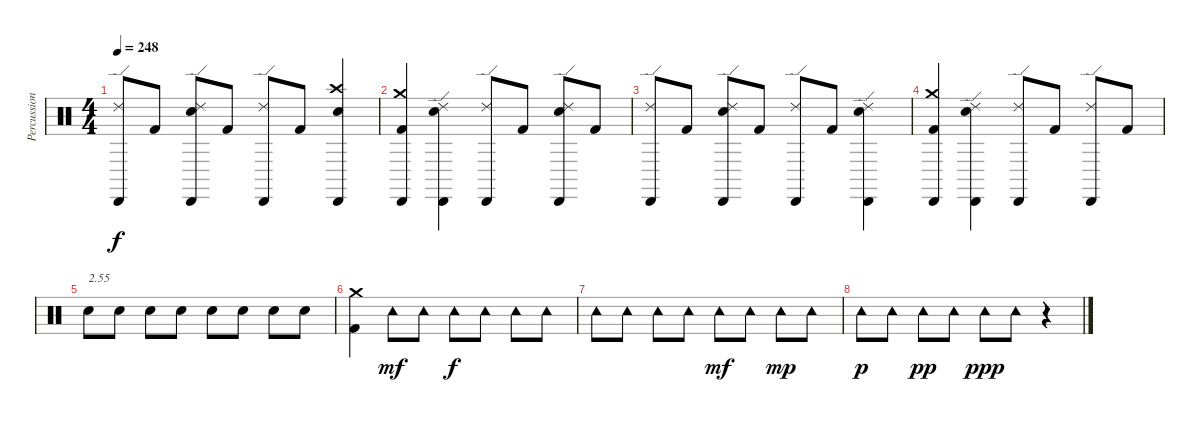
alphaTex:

\track ("Percussions" "Percussion") {instrument percussion}
\staff {score}
\articulation defaults
\ts (4 4)
\tempo 248
\clef neutral
\ks c
("Ride (edge) 2" "Cabasa (hit)").8{dy f} "Kick (hit) 2".8 ("Electric Snare (hit)" "Ride (edge) 2" "Cabasa (hit)").8 "Kick (hit) 2".8 ("Ride (edge) 2" "Cabasa (hit)").8 "Kick (hit) 2".8 ("Electric Snare (hit)" "Crash high (hit)" "Cabasa (hit)").4 |
("Kick (hit) 2" "Crash medium (hit)" "Cabasa (hit)").4 ("Electric Snare (hit)" "Ride (edge) 2" "Cabasa (hit)").4 ("Ride (edge) 2" "Cabasa (hit)").8 "Kick (hit) 2".8 ("Electric Snare (hit)" "Ride (edge) 2" "Cabasa (hit)").8 "Kick (hit) 2".8 |
("Ride (edge) 2" "Cabasa (hit)").8 "Kick (hit) 2".8 ("Electric Snare (hit)" "Ride (edge) 2" "Cabasa (hit)").8 "Kick (hit) 2".8 ("Ride (edge) 2" "Cabasa (hit)").8 "Kick (hit) 2".8 ("Electric Snare (hit)" "Ride (edge) 2" "Cabasa (hit)").4 |
("Kick (hit) 2" "Crash medium (hit)" "Cabasa (hit)").4 ("Electric Snare (hit)" "Ride (edge) 2" "Cabasa (hit)").4 ("Ride (edge) 2" "Cabasa (hit)").8 "Kick (hit) 2".8 ("Ride (edge) 2" "Cabasa (hit)").8 "Kick (hit) 2".8 |
"Electric Snare (hit)".8{txt "2.55"} "Electric Snare (hit)".8 "Electric Snare (hit)".8 "Electric Snare (hit)".8 "Electric Snare (hit)".8 "Electric Snare (hit)".8 "Electric Snare (hit)".8 "Electric Snare (hit)".8 |
("Kick (hit) 2" "Crash medium (hit)").4 "Tambourine (hit)".8{dy mf} "Tambourine (hit)".8 "Tambourine (hit)".8{dy f} "Tambourine (hit)".8 "Tambourine (hit)".8 "Tambourine (hit)".8 |
"Tambourine (hit)".8 "Tambourine (hit)".8 "Tambourine (hit)".8 "Tambourine (hit)".8 "Tambourine (hit)".8{dy mf} "Tambourine (hit)".8 "Tambourine (hit)".8{dy mp} "Tambourine (hit)".8 |
"Tambourine (hit)".8{dy p} "Tambourine (hit)".8 "Tambourine (hit)".8{dy pp} "Tambourine (hit)".8 "Tambourine (hit)".8{dy ppp} "Tambourine (hit)".8 r.4
